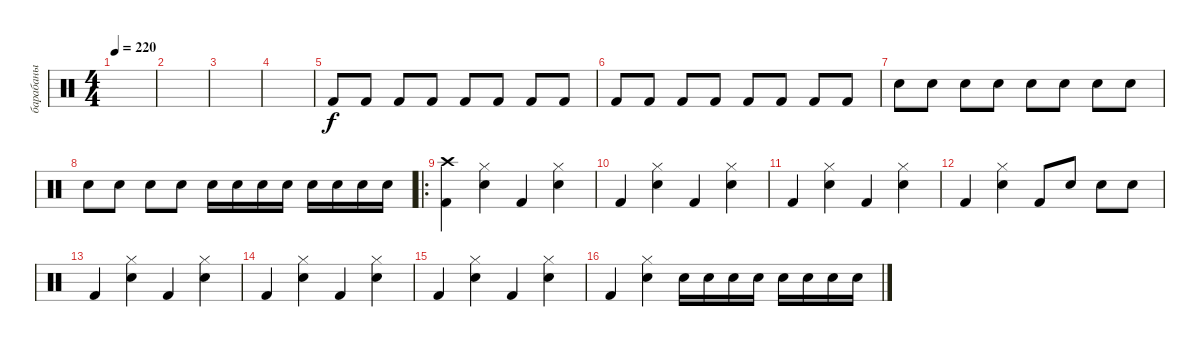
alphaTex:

\track ("барабаны" "барабаны") {instrument percussion}
\staff {score}
\articulation defaults
\ts (4 4)
\tempo 220
\clef neutral
\ks c
|
|
|
|
"Kick (hit) 2".8 "Kick (hit) 2".8 "Kick (hit) 2".8 "Kick (hit) 2".8 "Kick (hit) 2".8 "Kick (hit) 2".8 "Kick (hit) 2".8 "Kick (hit) 2".8 |
"Kick (hit) 2".8 "Kick (hit) 2".8 "Kick (hit) 2".8 "Kick (hit) 2".8 "Kick (hit) 2".8 "Kick (hit) 2".8 "Kick (hit) 2".8 "Kick (hit) 2".8 |
"Snare (hit) 2".8 "Snare (hit) 2".8 "Snare (hit) 2".8 "Snare (hit) 2".8 "Snare (hit) 2".8 "Snare (hit) 2".8 "Snare (hit) 2".8 "Snare (hit) 2".8 |
"Snare (hit) 2".8 "Snare (hit) 2".8 "Snare (hit) 2".8 "Snare (hit) 2".8 "Snare (hit) 2".16 "Snare (hit) 2".16 "Snare (hit) 2".16 "Snare (hit) 2".16 "Snare (hit) 2".16 "Snare (hit) 2".16 "Snare (hit) 2".16 "Snare (hit) 2".16 |
\ro
("Crash high (hit)" "Kick (hit) 2").4 ("Hi-Hat (closed)" "Snare (hit) 2").4 "Kick (hit) 2".4 ("Hi-Hat (closed)" "Snare (hit) 2").4 |
"Kick (hit) 2".4 ("Hi-Hat (closed)" "Snare (hit) 2").4 "Kick (hit) 2".4 ("Hi-Hat (closed)" "Snare (hit) 2").4 |
"Kick (hit) 2".4 ("Hi-Hat (closed)" "Snare (hit) 2").4 "Kick (hit) 2".4 ("Hi-Hat (closed)" "Snare (hit) 2").4 |
"Kick (hit) 2".4 ("Hi-Hat (closed)" "Snare (hit) 2").4 "Kick (hit) 2".8 "Snare (hit) 2".8 "Snare (hit) 2".8 "Snare (hit) 2".8 |
"Kick (hit) 2".4 ("Hi-Hat (closed)" "Snare (hit) 2").4 "Kick (hit) 2".4 ("Hi-Hat (closed)" "Snare (hit) 2").4 |
"Kick (hit) 2".4 ("Hi-Hat (closed)" "Snare (hit) 2").4 "Kick (hit) 2".4 ("Hi-Hat (closed)" "Snare (hit) 2").4 |
"Kick (hit) 2".4 ("Hi-Hat (closed)" "Snare (hit) 2").4 "Kick (hit) 2".4 ("Hi-Hat (closed)" "Snare (hit) 2").4 |
"Kick (hit) 2".4 ("Hi-Hat (closed)" "Snare (hit) 2").4 "Snare (hit) 2".16 "Snare (hit) 2".16 "Snare (hit) 2".16 "Snare (hit) 2".16 "Snare (hit) 2".16 "Snare (hit) 2".16 "Snare (hit) 2".16 "Snare (hit) 2".16
